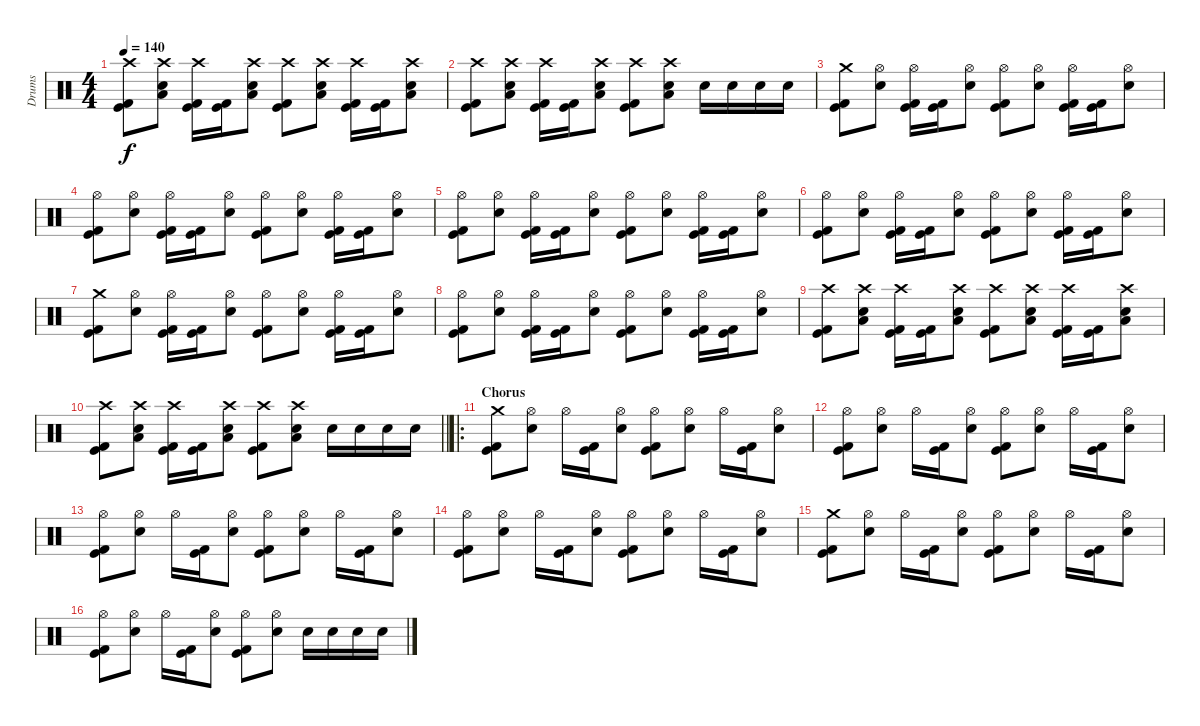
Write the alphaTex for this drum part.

\track ("Drums" "Drums") {instrument percussion}
\staff {score}
\articulation defaults
\ts (4 4)
\tempo 140
\clef neutral
\ks c
("Crash high (hit)" "Kick (hit)" "Kick (hit) 2").8{dy f} ("Crash high (hit)" "Electric Snare (hit)" "Low Floor Tom (hit)").8 ("Crash high (hit)" "Kick (hit)" "Kick (hit) 2").16 ("Kick (hit)" "Kick (hit) 2").16 ("Crash high (hit)" "Electric Snare (hit)" "Low Floor Tom (hit)").8 ("Crash high (hit)" "Kick (hit)" "Kick (hit) 2").8 ("Crash high (hit)" "Electric Snare (hit)" "Low Floor Tom (hit)").8 ("Crash high (hit)" "Kick (hit)" "Kick (hit) 2").16 ("Kick (hit)" "Kick (hit) 2").16 ("Crash high (hit)" "Electric Snare (hit)" "Low Floor Tom (hit)").8 |
("Crash high (hit)" "Kick (hit)" "Kick (hit) 2").8 ("Crash high (hit)" "Electric Snare (hit)" "Low Floor Tom (hit)").8 ("Crash high (hit)" "Kick (hit)" "Kick (hit) 2").16 ("Kick (hit)" "Kick (hit) 2").16 ("Crash high (hit)" "Electric Snare (hit)" "Low Floor Tom (hit)").8 ("Crash high (hit)" "Kick (hit)" "Kick (hit) 2").8 ("Crash high (hit)" "Electric Snare (hit)" "Low Floor Tom (hit)").8 "Electric Snare (hit)".16 "Electric Snare (hit)".16 "Electric Snare (hit)".16 "Electric Snare (hit)".16 |
("Crash medium (hit)" "Kick (hit)" "Kick (hit) 2").8 ("Hi-Hat (open)" "Electric Snare (hit)").8 ("Hi-Hat (open)" "Kick (hit)" "Kick (hit) 2").16 ("Kick (hit)" "Kick (hit) 2").16 ("Hi-Hat (open)" "Electric Snare (hit)").8 ("Hi-Hat (open)" "Kick (hit)" "Kick (hit) 2").8 ("Hi-Hat (open)" "Electric Snare (hit)").8 ("Hi-Hat (open)" "Kick (hit)" "Kick (hit) 2").16 ("Kick (hit)" "Kick (hit) 2").16 ("Hi-Hat (open)" "Electric Snare (hit)").8 |
("Hi-Hat (open)" "Kick (hit)" "Kick (hit) 2").8 ("Hi-Hat (open)" "Electric Snare (hit)").8 ("Hi-Hat (open)" "Kick (hit)" "Kick (hit) 2").16 ("Kick (hit)" "Kick (hit) 2").16 ("Hi-Hat (open)" "Electric Snare (hit)").8 ("Hi-Hat (open)" "Kick (hit)" "Kick (hit) 2").8 ("Hi-Hat (open)" "Electric Snare (hit)").8 ("Hi-Hat (open)" "Kick (hit)" "Kick (hit) 2").16 ("Kick (hit)" "Kick (hit) 2").16 ("Hi-Hat (open)" "Electric Snare (hit)").8 |
("Hi-Hat (open)" "Kick (hit)" "Kick (hit) 2").8 ("Hi-Hat (open)" "Electric Snare (hit)").8 ("Hi-Hat (open)" "Kick (hit)" "Kick (hit) 2").16 ("Kick (hit)" "Kick (hit) 2").16 ("Hi-Hat (open)" "Electric Snare (hit)").8 ("Hi-Hat (open)" "Kick (hit)" "Kick (hit) 2").8 ("Hi-Hat (open)" "Electric Snare (hit)").8 ("Hi-Hat (open)" "Kick (hit)" "Kick (hit) 2").16 ("Kick (hit)" "Kick (hit) 2").16 ("Hi-Hat (open)" "Electric Snare (hit)").8 |
("Hi-Hat (open)" "Kick (hit)" "Kick (hit) 2").8 ("Hi-Hat (open)" "Electric Snare (hit)").8 ("Hi-Hat (open)" "Kick (hit)" "Kick (hit) 2").16 ("Kick (hit)" "Kick (hit) 2").16 ("Hi-Hat (open)" "Electric Snare (hit)").8 ("Hi-Hat (open)" "Kick (hit)" "Kick (hit) 2").8 ("Hi-Hat (open)" "Electric Snare (hit)").8 ("Hi-Hat (open)" "Kick (hit)" "Kick (hit) 2").16 ("Kick (hit)" "Kick (hit) 2").16 ("Hi-Hat (open)" "Electric Snare (hit)").8 |
("Crash medium (hit)" "Kick (hit)" "Kick (hit) 2").8 ("Hi-Hat (open)" "Electric Snare (hit)").8 ("Hi-Hat (open)" "Kick (hit)" "Kick (hit) 2").16 ("Kick (hit)" "Kick (hit) 2").16 ("Hi-Hat (open)" "Electric Snare (hit)").8 ("Hi-Hat (open)" "Kick (hit)" "Kick (hit) 2").8 ("Hi-Hat (open)" "Electric Snare (hit)").8 ("Hi-Hat (open)" "Kick (hit)" "Kick (hit) 2").16 ("Kick (hit)" "Kick (hit) 2").16 ("Hi-Hat (open)" "Electric Snare (hit)").8 |
("Hi-Hat (open)" "Kick (hit)" "Kick (hit) 2").8 ("Hi-Hat (open)" "Electric Snare (hit)").8 ("Hi-Hat (open)" "Kick (hit)" "Kick (hit) 2").16 ("Kick (hit)" "Kick (hit) 2").16 ("Hi-Hat (open)" "Electric Snare (hit)").8 ("Hi-Hat (open)" "Kick (hit)" "Kick (hit) 2").8 ("Hi-Hat (open)" "Electric Snare (hit)").8 ("Hi-Hat (open)" "Kick (hit)" "Kick (hit) 2").16 ("Kick (hit)" "Kick (hit) 2").16 ("Hi-Hat (open)" "Electric Snare (hit)").8 |
("Crash high (hit)" "Kick (hit)" "Kick (hit) 2").8 ("Crash high (hit)" "Electric Snare (hit)" "Low Floor Tom (hit)").8 ("Crash high (hit)" "Kick (hit)" "Kick (hit) 2").16 ("Kick (hit)" "Kick (hit) 2").16 ("Crash high (hit)" "Electric Snare (hit)" "Low Floor Tom (hit)").8 ("Crash high (hit)" "Kick (hit)" "Kick (hit) 2").8 ("Crash high (hit)" "Electric Snare (hit)" "Low Floor Tom (hit)").8 ("Crash high (hit)" "Kick (hit)" "Kick (hit) 2").16 ("Kick (hit)" "Kick (hit) 2").16 ("Crash high (hit)" "Electric Snare (hit)" "Low Floor Tom (hit)").8 |
\barLineRight lightlight
("Crash high (hit)" "Kick (hit)" "Kick (hit) 2").8 ("Crash high (hit)" "Electric Snare (hit)" "Low Floor Tom (hit)").8 ("Crash high (hit)" "Kick (hit)" "Kick (hit) 2").16 ("Kick (hit)" "Kick (hit) 2").16 ("Crash high (hit)" "Electric Snare (hit)" "Low Floor Tom (hit)").8 ("Crash high (hit)" "Kick (hit)" "Kick (hit) 2").8 ("Crash high (hit)" "Electric Snare (hit)" "Low Floor Tom (hit)").8 "Electric Snare (hit)".16 "Electric Snare (hit)".16 "Electric Snare (hit)".16 "Electric Snare (hit)".16 |
\ro
\section ("" "Chorus")
("Crash medium (hit)" "Kick (hit)" "Kick (hit) 2").8 ("Hi-Hat (open)" "Electric Snare (hit)").8 "Hi-Hat (open)".16 ("Kick (hit)" "Kick (hit) 2").16 ("Hi-Hat (open)" "Electric Snare (hit)").8 ("Hi-Hat (open)" "Kick (hit)" "Kick (hit) 2").8 ("Hi-Hat (open)" "Electric Snare (hit)").8 "Hi-Hat (open)".16 ("Kick (hit)" "Kick (hit) 2").16 ("Hi-Hat (open)" "Electric Snare (hit)").8 |
("Hi-Hat (open)" "Kick (hit)" "Kick (hit) 2").8 ("Hi-Hat (open)" "Electric Snare (hit)").8 "Hi-Hat (open)".16 ("Kick (hit)" "Kick (hit) 2").16 ("Hi-Hat (open)" "Electric Snare (hit)").8 ("Hi-Hat (open)" "Kick (hit)" "Kick (hit) 2").8 ("Hi-Hat (open)" "Electric Snare (hit)").8 "Hi-Hat (open)".16 ("Kick (hit)" "Kick (hit) 2").16 ("Hi-Hat (open)" "Electric Snare (hit)").8 |
("Hi-Hat (open)" "Kick (hit)" "Kick (hit) 2").8 ("Hi-Hat (open)" "Electric Snare (hit)").8 "Hi-Hat (open)".16 ("Kick (hit)" "Kick (hit) 2").16 ("Hi-Hat (open)" "Electric Snare (hit)").8 ("Hi-Hat (open)" "Kick (hit)" "Kick (hit) 2").8 ("Hi-Hat (open)" "Electric Snare (hit)").8 "Hi-Hat (open)".16 ("Kick (hit)" "Kick (hit) 2").16 ("Hi-Hat (open)" "Electric Snare (hit)").8 |
("Hi-Hat (open)" "Kick (hit)" "Kick (hit) 2").8 ("Hi-Hat (open)" "Electric Snare (hit)").8 "Hi-Hat (open)".16 ("Kick (hit)" "Kick (hit) 2").16 ("Hi-Hat (open)" "Electric Snare (hit)").8 ("Hi-Hat (open)" "Kick (hit)" "Kick (hit) 2").8 ("Hi-Hat (open)" "Electric Snare (hit)").8 "Hi-Hat (open)".16 ("Kick (hit)" "Kick (hit) 2").16 ("Hi-Hat (open)" "Electric Snare (hit)").8 |
("Crash medium (hit)" "Kick (hit)" "Kick (hit) 2").8 ("Hi-Hat (open)" "Electric Snare (hit)").8 "Hi-Hat (open)".16 ("Kick (hit)" "Kick (hit) 2").16 ("Hi-Hat (open)" "Electric Snare (hit)").8 ("Hi-Hat (open)" "Kick (hit)" "Kick (hit) 2").8 ("Hi-Hat (open)" "Electric Snare (hit)").8 "Hi-Hat (open)".16 ("Kick (hit)" "Kick (hit) 2").16 ("Hi-Hat (open)" "Electric Snare (hit)").8 |
("Hi-Hat (open)" "Kick (hit)" "Kick (hit) 2").8 ("Hi-Hat (open)" "Electric Snare (hit)").8 "Hi-Hat (open)".16 ("Kick (hit)" "Kick (hit) 2").16 ("Hi-Hat (open)" "Electric Snare (hit)").8 ("Hi-Hat (open)" "Kick (hit)" "Kick (hit) 2").8 ("Hi-Hat (open)" "Electric Snare (hit)").8 "Electric Snare (hit)".16 "Electric Snare (hit)".16 "Electric Snare (hit)".16 "Electric Snare (hit)".16
